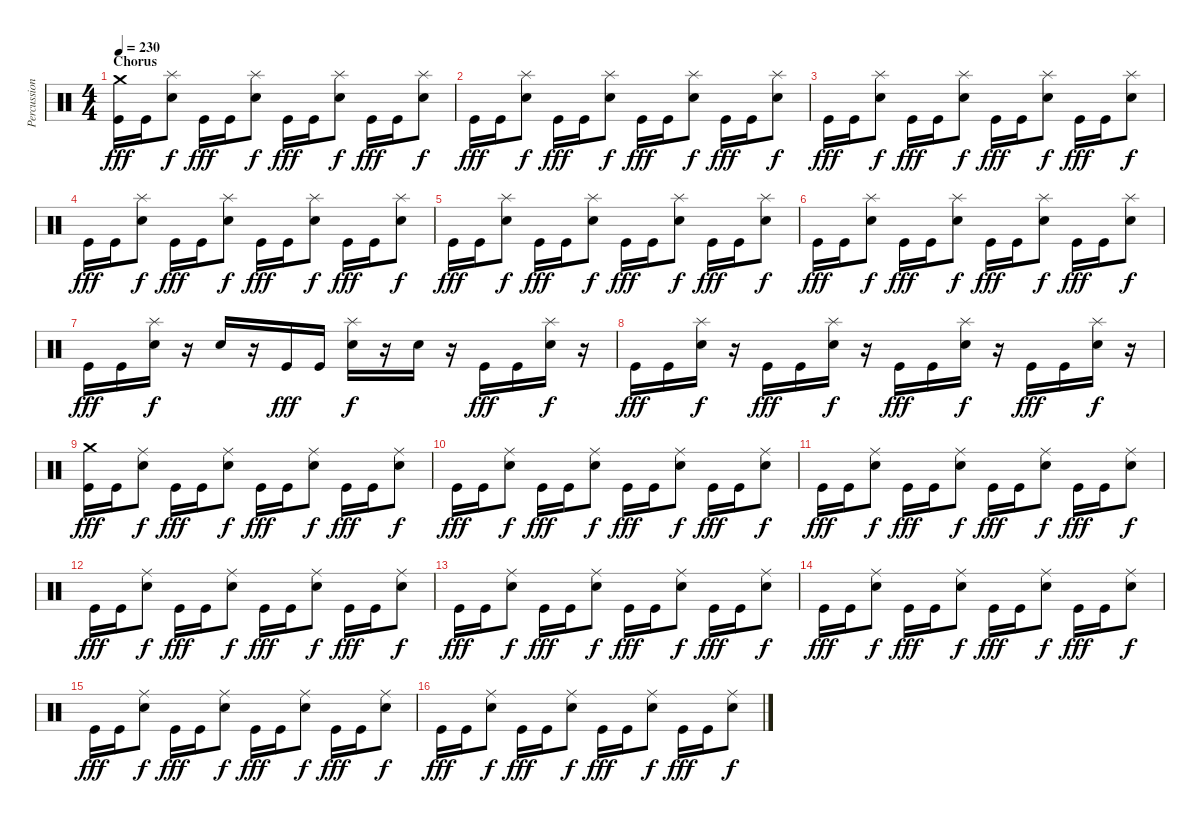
\track ("Percussion" "Percussion") {instrument percussion}
\staff {score}
\articulation defaults
\ts (4 4)
\section ("" "Chorus")
\tempo 230
\clef neutral
\ks c
("Crash medium (hit)" "Kick (hit)").16{dy fff} "Kick (hit)".16 ("Splash (hit)" "Electric Snare (hit)").8{dy f} "Kick (hit)".16{dy fff} "Kick (hit)".16 ("Splash (hit)" "Electric Snare (hit)").8{dy f} "Kick (hit)".16{dy fff} "Kick (hit)".16 ("Splash (hit)" "Electric Snare (hit)").8{dy f} "Kick (hit)".16{dy fff} "Kick (hit)".16 ("Splash (hit)" "Electric Snare (hit)").8{dy f} |
"Kick (hit)".16{dy fff} "Kick (hit)".16 ("Splash (hit)" "Electric Snare (hit)").8{dy f} "Kick (hit)".16{dy fff} "Kick (hit)".16 ("Splash (hit)" "Electric Snare (hit)").8{dy f} "Kick (hit)".16{dy fff} "Kick (hit)".16 ("Splash (hit)" "Electric Snare (hit)").8{dy f} "Kick (hit)".16{dy fff} "Kick (hit)".16 ("Splash (hit)" "Electric Snare (hit)").8{dy f} |
"Kick (hit)".16{dy fff} "Kick (hit)".16 ("Splash (hit)" "Electric Snare (hit)").8{dy f} "Kick (hit)".16{dy fff} "Kick (hit)".16 ("Splash (hit)" "Electric Snare (hit)").8{dy f} "Kick (hit)".16{dy fff} "Kick (hit)".16 ("Splash (hit)" "Electric Snare (hit)").8{dy f} "Kick (hit)".16{dy fff} "Kick (hit)".16 ("Splash (hit)" "Electric Snare (hit)").8{dy f} |
"Kick (hit)".16{dy fff} "Kick (hit)".16 ("Splash (hit)" "Electric Snare (hit)").8{dy f} "Kick (hit)".16{dy fff} "Kick (hit)".16 ("Splash (hit)" "Electric Snare (hit)").8{dy f} "Kick (hit)".16{dy fff} "Kick (hit)".16 ("Splash (hit)" "Electric Snare (hit)").8{dy f} "Kick (hit)".16{dy fff} "Kick (hit)".16 ("Splash (hit)" "Electric Snare (hit)").8{dy f} |
"Kick (hit)".16{dy fff} "Kick (hit)".16 ("Splash (hit)" "Electric Snare (hit)").8{dy f} "Kick (hit)".16{dy fff} "Kick (hit)".16 ("Splash (hit)" "Electric Snare (hit)").8{dy f} "Kick (hit)".16{dy fff} "Kick (hit)".16 ("Splash (hit)" "Electric Snare (hit)").8{dy f} "Kick (hit)".16{dy fff} "Kick (hit)".16 ("Splash (hit)" "Electric Snare (hit)").8{dy f} |
"Kick (hit)".16{dy fff} "Kick (hit)".16 ("Splash (hit)" "Electric Snare (hit)").8{dy f} "Kick (hit)".16{dy fff} "Kick (hit)".16 ("Splash (hit)" "Electric Snare (hit)").8{dy f} "Kick (hit)".16{dy fff} "Kick (hit)".16 ("Splash (hit)" "Electric Snare (hit)").8{dy f} "Kick (hit)".16{dy fff} "Kick (hit)".16 ("Splash (hit)" "Electric Snare (hit)").8{dy f} |
"Kick (hit)".16{dy fff} "Kick (hit)".16 ("Splash (hit)" "Electric Snare (hit)").16{dy f} r.16 "Electric Snare (hit)".16 r.16 "Kick (hit)".16{dy fff} "Kick (hit)".16 ("Splash (hit)" "Electric Snare (hit)").16{dy f} r.16 "Electric Snare (hit)".16 r.16 "Kick (hit)".16{dy fff} "Kick (hit)".16 ("Splash (hit)" "Electric Snare (hit)").16{dy f} r.16 |
"Kick (hit)".16{dy fff} "Kick (hit)".16 ("Splash (hit)" "Electric Snare (hit)").16{dy f} r.16 "Kick (hit)".16{dy fff} "Kick (hit)".16 ("Splash (hit)" "Electric Snare (hit)").16{dy f} r.16 "Kick (hit)".16{dy fff} "Kick (hit)".16 ("Splash (hit)" "Electric Snare (hit)").16{dy f} r.16 "Kick (hit)".16{dy fff} "Kick (hit)".16 ("Splash (hit)" "Electric Snare (hit)").16{dy f} r.16 |
("Crash medium (hit)" "Kick (hit)").16{dy fff} "Kick (hit)".16 ("Ride (middle)" "Electric Snare (hit)").8{dy f} "Kick (hit)".16{dy fff} "Kick (hit)".16 ("Ride (middle)" "Electric Snare (hit)").8{dy f} "Kick (hit)".16{dy fff} "Kick (hit)".16 ("Ride (middle)" "Electric Snare (hit)").8{dy f} "Kick (hit)".16{dy fff} "Kick (hit)".16 ("Ride (middle)" "Electric Snare (hit)").8{dy f} |
"Kick (hit)".16{dy fff} "Kick (hit)".16 ("Ride (middle)" "Electric Snare (hit)").8{dy f} "Kick (hit)".16{dy fff} "Kick (hit)".16 ("Ride (middle)" "Electric Snare (hit)").8{dy f} "Kick (hit)".16{dy fff} "Kick (hit)".16 ("Ride (middle)" "Electric Snare (hit)").8{dy f} "Kick (hit)".16{dy fff} "Kick (hit)".16 ("Ride (middle)" "Electric Snare (hit)").8{dy f} |
"Kick (hit)".16{dy fff} "Kick (hit)".16 ("Ride (middle)" "Electric Snare (hit)").8{dy f} "Kick (hit)".16{dy fff} "Kick (hit)".16 ("Ride (middle)" "Electric Snare (hit)").8{dy f} "Kick (hit)".16{dy fff} "Kick (hit)".16 ("Ride (middle)" "Electric Snare (hit)").8{dy f} "Kick (hit)".16{dy fff} "Kick (hit)".16 ("Ride (middle)" "Electric Snare (hit)").8{dy f} |
"Kick (hit)".16{dy fff} "Kick (hit)".16 ("Ride (middle)" "Electric Snare (hit)").8{dy f} "Kick (hit)".16{dy fff} "Kick (hit)".16 ("Ride (middle)" "Electric Snare (hit)").8{dy f} "Kick (hit)".16{dy fff} "Kick (hit)".16 ("Ride (middle)" "Electric Snare (hit)").8{dy f} "Kick (hit)".16{dy fff} "Kick (hit)".16 ("Ride (middle)" "Electric Snare (hit)").8{dy f} |
"Kick (hit)".16{dy fff} "Kick (hit)".16 ("Ride (middle)" "Electric Snare (hit)").8{dy f} "Kick (hit)".16{dy fff} "Kick (hit)".16 ("Ride (middle)" "Electric Snare (hit)").8{dy f} "Kick (hit)".16{dy fff} "Kick (hit)".16 ("Ride (middle)" "Electric Snare (hit)").8{dy f} "Kick (hit)".16{dy fff} "Kick (hit)".16 ("Ride (middle)" "Electric Snare (hit)").8{dy f} |
"Kick (hit)".16{dy fff} "Kick (hit)".16 ("Ride (middle)" "Electric Snare (hit)").8{dy f} "Kick (hit)".16{dy fff} "Kick (hit)".16 ("Ride (middle)" "Electric Snare (hit)").8{dy f} "Kick (hit)".16{dy fff} "Kick (hit)".16 ("Ride (middle)" "Electric Snare (hit)").8{dy f} "Kick (hit)".16{dy fff} "Kick (hit)".16 ("Ride (middle)" "Electric Snare (hit)").8{dy f} |
"Kick (hit)".16{dy fff} "Kick (hit)".16 ("Ride (middle)" "Electric Snare (hit)").8{dy f} "Kick (hit)".16{dy fff} "Kick (hit)".16 ("Ride (middle)" "Electric Snare (hit)").8{dy f} "Kick (hit)".16{dy fff} "Kick (hit)".16 ("Ride (middle)" "Electric Snare (hit)").8{dy f} "Kick (hit)".16{dy fff} "Kick (hit)".16 ("Ride (middle)" "Electric Snare (hit)").8{dy f} |
"Kick (hit)".16{dy fff} "Kick (hit)".16 ("Ride (middle)" "Electric Snare (hit)").8{dy f} "Kick (hit)".16{dy fff} "Kick (hit)".16 ("Ride (middle)" "Electric Snare (hit)").8{dy f} "Kick (hit)".16{dy fff} "Kick (hit)".16 ("Ride (middle)" "Electric Snare (hit)").8{dy f} "Kick (hit)".16{dy fff} "Kick (hit)".16 ("Ride (middle)" "Electric Snare (hit)").8{dy f}
